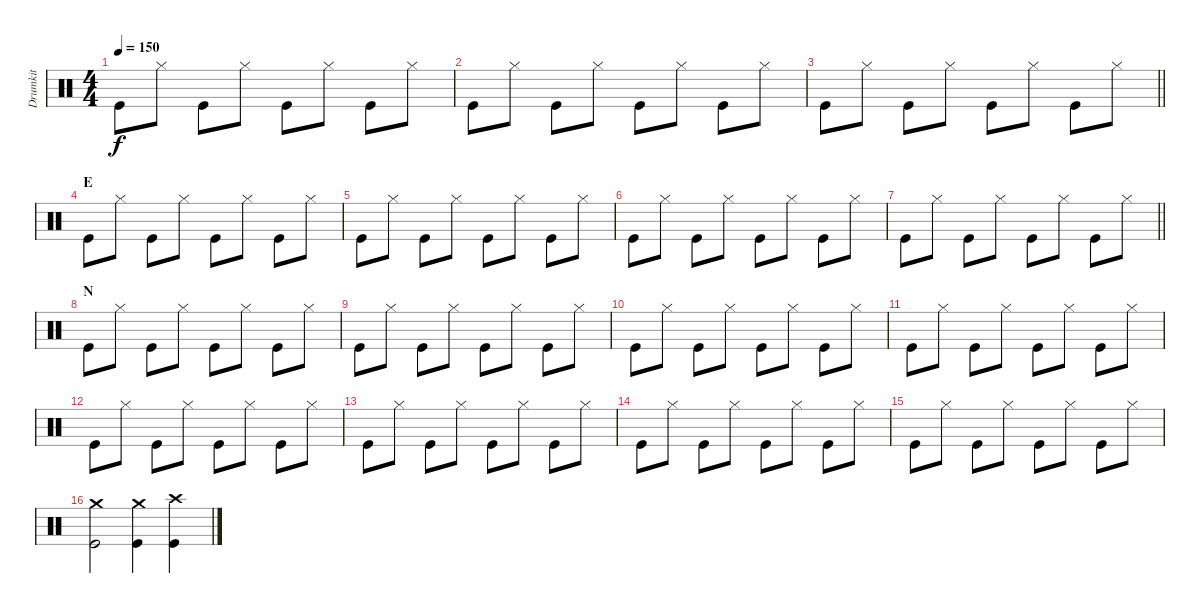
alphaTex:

\track ("Drumkit" "Drumkit") {instrument percussion}
\staff {score}
\articulation defaults
\ts (4 4)
\tempo 150
\clef neutral
\ks c "Kick (hit)".8{dy f} "Hi-Hat (closed)".8 "Kick (hit)".8 "Hi-Hat (closed)".8 "Kick (hit)".8 "Hi-Hat (closed)".8 "Kick (hit)".8 "Hi-Hat (closed)".8
|
"Kick (hit)".8 "Hi-Hat (closed)".8 "Kick (hit)".8 "Hi-Hat (closed)".8 "Kick (hit)".8 "Hi-Hat (closed)".8 "Kick (hit)".8 "Hi-Hat (closed)".8 |
\barLineRight lightlight "Kick (hit)".8 "Hi-Hat (closed)".8 "Kick (hit)".8 "Hi-Hat (closed)".8 "Kick (hit)".8 "Hi-Hat (closed)".8 "Kick (hit)".8 "Hi-Hat (closed)".8
|
\section ("" "E")
"Kick (hit)".8 "Hi-Hat (closed)".8 "Kick (hit)".8 "Hi-Hat (closed)".8 "Kick (hit)".8 "Hi-Hat (closed)".8 "Kick (hit)".8 "Hi-Hat (closed)".8 |
"Kick (hit)".8 "Hi-Hat (closed)".8 "Kick (hit)".8 "Hi-Hat (closed)".8 "Kick (hit)".8 "Hi-Hat (closed)".8 "Kick (hit)".8 "Hi-Hat (closed)".8 |
"Kick (hit)".8 "Hi-Hat (closed)".8 "Kick (hit)".8 "Hi-Hat (closed)".8 "Kick (hit)".8 "Hi-Hat (closed)".8 "Kick (hit)".8 "Hi-Hat (closed)".8 |
\barLineRight lightlight "Kick (hit)".8 "Hi-Hat (closed)".8 "Kick (hit)".8 "Hi-Hat (closed)".8 "Kick (hit)".8 "Hi-Hat (closed)".8 "Kick (hit)".8 "Hi-Hat (closed)".8
|
\section ("" "N")
"Kick (hit)".8 "Hi-Hat (closed)".8 "Kick (hit)".8 "Hi-Hat (closed)".8 "Kick (hit)".8 "Hi-Hat (closed)".8 "Kick (hit)".8 "Hi-Hat (closed)".8 |
"Kick (hit)".8 "Hi-Hat (closed)".8 "Kick (hit)".8 "Hi-Hat (closed)".8 "Kick (hit)".8 "Hi-Hat (closed)".8 "Kick (hit)".8 "Hi-Hat (closed)".8 |
"Kick (hit)".8 "Hi-Hat (closed)".8 "Kick (hit)".8 "Hi-Hat (closed)".8 "Kick (hit)".8 "Hi-Hat (closed)".8 "Kick (hit)".8 "Hi-Hat (closed)".8 |
"Kick (hit)".8 "Hi-Hat (closed)".8 "Kick (hit)".8 "Hi-Hat (closed)".8 "Kick (hit)".8 "Hi-Hat (closed)".8 "Kick (hit)".8 "Hi-Hat (closed)".8 |
"Kick (hit)".8 "Hi-Hat (closed)".8 "Kick (hit)".8 "Hi-Hat (closed)".8 "Kick (hit)".8 "Hi-Hat (closed)".8 "Kick (hit)".8 "Hi-Hat (closed)".8 |
"Kick (hit)".8 "Hi-Hat (closed)".8 "Kick (hit)".8 "Hi-Hat (closed)".8 "Kick (hit)".8 "Hi-Hat (closed)".8 "Kick (hit)".8 "Hi-Hat (closed)".8 |
"Kick (hit)".8 "Hi-Hat (closed)".8 "Kick (hit)".8 "Hi-Hat (closed)".8 "Kick (hit)".8 "Hi-Hat (closed)".8 "Kick (hit)".8 "Hi-Hat (closed)".8 |
"Kick (hit)".8 "Hi-Hat (closed)".8 "Kick (hit)".8 "Hi-Hat (closed)".8 "Kick (hit)".8 "Hi-Hat (closed)".8 "Kick (hit)".8 "Hi-Hat (closed)".8 |
("Crash medium (hit)" "Kick (hit)").2 ("Crash medium (hit)" "Kick (hit)").4 ("Crash high (hit)" "Kick (hit)").4
